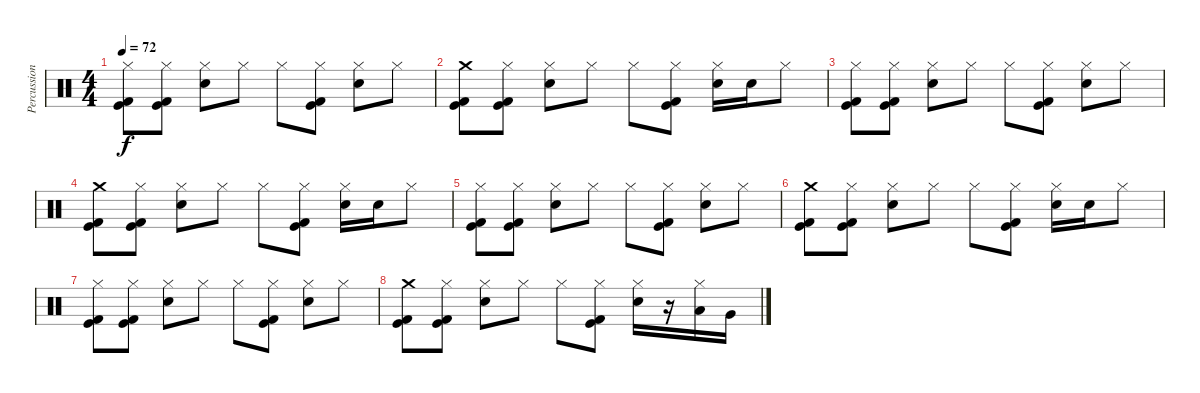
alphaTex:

\track ("Percussion" "Percussion") {instrument percussion}
\staff {score}
\articulation defaults
\ts (4 4)
\tempo 72
\clef neutral
\ks c
("Hi-Hat (closed)" "Kick (hit)" "Kick (hit) 2").8{dy f} ("Hi-Hat (closed)" "Kick (hit)" "Kick (hit) 2").8 ("Hi-Hat (closed)" "Snare (hit) 2").8 "Hi-Hat (closed)".8 "Hi-Hat (closed)".8 ("Hi-Hat (closed)" "Kick (hit)" "Kick (hit) 2").8 ("Hi-Hat (closed)" "Snare (hit) 2").8 "Hi-Hat (closed)".8 |
("Crash medium (hit)" "Kick (hit)" "Kick (hit) 2").8 ("Hi-Hat (closed)" "Kick (hit)" "Kick (hit) 2").8 ("Hi-Hat (closed)" "Snare (hit) 2").8 "Hi-Hat (closed)".8 "Hi-Hat (closed)".8 ("Hi-Hat (closed)" "Kick (hit)" "Kick (hit) 2").8 ("Hi-Hat (closed)" "Snare (hit) 2").16 "Snare (hit) 2".16 "Hi-Hat (closed)".8 |
("Hi-Hat (closed)" "Kick (hit)" "Kick (hit) 2").8 ("Hi-Hat (closed)" "Kick (hit)" "Kick (hit) 2").8 ("Hi-Hat (closed)" "Snare (hit) 2").8 "Hi-Hat (closed)".8 "Hi-Hat (closed)".8 ("Hi-Hat (closed)" "Kick (hit)" "Kick (hit) 2").8 ("Hi-Hat (closed)" "Snare (hit) 2").8 "Hi-Hat (closed)".8 |
("Crash medium (hit)" "Kick (hit)" "Kick (hit) 2").8 ("Hi-Hat (closed)" "Kick (hit)" "Kick (hit) 2").8 ("Hi-Hat (closed)" "Snare (hit) 2").8 "Hi-Hat (closed)".8 "Hi-Hat (closed)".8 ("Hi-Hat (closed)" "Kick (hit)" "Kick (hit) 2").8 ("Hi-Hat (closed)" "Snare (hit) 2").16 "Snare (hit) 2".16 "Hi-Hat (closed)".8 |
("Hi-Hat (closed)" "Kick (hit)" "Kick (hit) 2").8 ("Hi-Hat (closed)" "Kick (hit)" "Kick (hit) 2").8 ("Hi-Hat (closed)" "Snare (hit) 2").8 "Hi-Hat (closed)".8 "Hi-Hat (closed)".8 ("Hi-Hat (closed)" "Kick (hit)" "Kick (hit) 2").8 ("Hi-Hat (closed)" "Snare (hit) 2").8 "Hi-Hat (closed)".8 |
("Crash medium (hit)" "Kick (hit)" "Kick (hit) 2").8 ("Hi-Hat (closed)" "Kick (hit)" "Kick (hit) 2").8 ("Hi-Hat (closed)" "Snare (hit) 2").8 "Hi-Hat (closed)".8 "Hi-Hat (closed)".8 ("Hi-Hat (closed)" "Kick (hit)" "Kick (hit) 2").8 ("Hi-Hat (closed)" "Snare (hit) 2").16 "Snare (hit) 2".16 "Hi-Hat (closed)".8 |
("Hi-Hat (closed)" "Kick (hit)" "Kick (hit) 2").8 ("Hi-Hat (closed)" "Kick (hit)" "Kick (hit) 2").8 ("Hi-Hat (closed)" "Snare (hit) 2").8 "Hi-Hat (closed)".8 "Hi-Hat (closed)".8 ("Hi-Hat (closed)" "Kick (hit)" "Kick (hit) 2").8 ("Hi-Hat (closed)" "Snare (hit) 2").8 "Hi-Hat (closed)".8 |
("Crash medium (hit)" "Kick (hit)" "Kick (hit) 2").8 ("Hi-Hat (closed)" "Kick (hit)" "Kick (hit) 2").8 ("Hi-Hat (closed)" "Snare (hit) 2").8 "Hi-Hat (closed)".8 "Hi-Hat (closed)".8 ("Hi-Hat (closed)" "Kick (hit)" "Kick (hit) 2").8 ("Hi-Hat (closed)" "Snare (hit) 2").16 r.16 ("Hi-Hat (closed)" "Low Tom (hit)").16 "Very Low Tom (hit)".16
